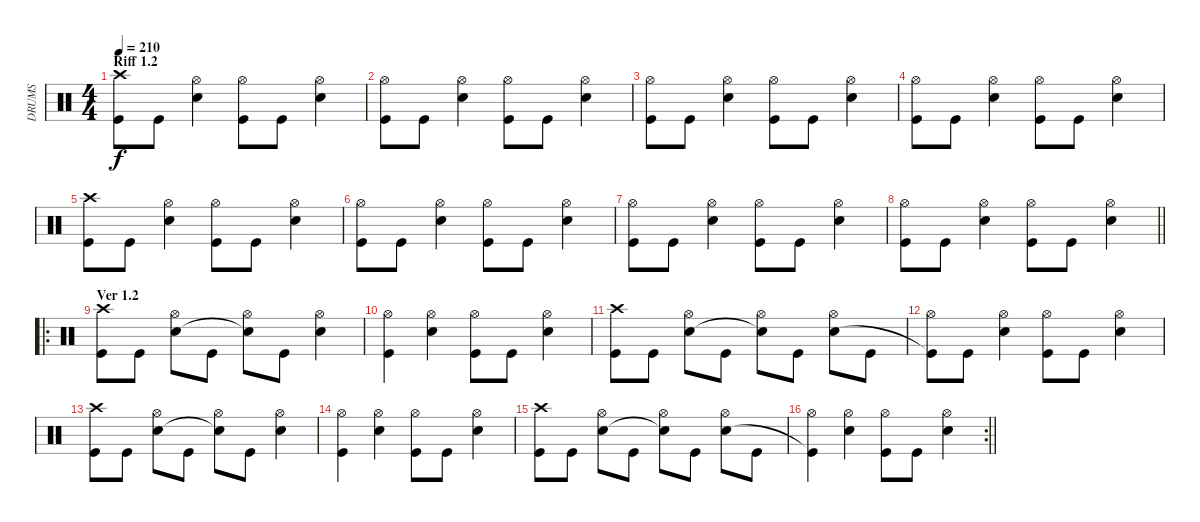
\track ("DRUMS" "DRUMS") {instrument percussion}
\staff {score}
\articulation defaults
\ts (4 4)
\section ("" "Riff 1.2")
\tempo 210
\clef neutral
\ks c
("Crash high (hit)" "Kick (hit)").8{dy f} "Kick (hit)".8 ("Hi-Hat (open)" "Snare (hit) 2").4 ("Hi-Hat (open)" "Kick (hit)").8 "Kick (hit)".8 ("Hi-Hat (open)" "Snare (hit) 2").4 |
("Hi-Hat (open)" "Kick (hit)").8 "Kick (hit)".8 ("Hi-Hat (open)" "Snare (hit) 2").4 ("Hi-Hat (open)" "Kick (hit)").8 "Kick (hit)".8 ("Hi-Hat (open)" "Snare (hit) 2").4 |
("Hi-Hat (open)" "Kick (hit)").8 "Kick (hit)".8 ("Hi-Hat (open)" "Snare (hit) 2").4 ("Hi-Hat (open)" "Kick (hit)").8 "Kick (hit)".8 ("Hi-Hat (open)" "Snare (hit) 2").4 |
("Hi-Hat (open)" "Kick (hit)").8 "Kick (hit)".8 ("Hi-Hat (open)" "Snare (hit) 2").4 ("Hi-Hat (open)" "Kick (hit)").8 "Kick (hit)".8 ("Hi-Hat (open)" "Snare (hit) 2").4 |
("Crash high (hit)" "Kick (hit)").8 "Kick (hit)".8 ("Hi-Hat (open)" "Snare (hit) 2").4 ("Hi-Hat (open)" "Kick (hit)").8 "Kick (hit)".8 ("Hi-Hat (open)" "Snare (hit) 2").4 |
("Hi-Hat (open)" "Kick (hit)").8 "Kick (hit)".8 ("Hi-Hat (open)" "Snare (hit) 2").4 ("Hi-Hat (open)" "Kick (hit)").8 "Kick (hit)".8 ("Hi-Hat (open)" "Snare (hit) 2").4 |
("Hi-Hat (open)" "Kick (hit)").8 "Kick (hit)".8 ("Hi-Hat (open)" "Snare (hit) 2").4 ("Hi-Hat (open)" "Kick (hit)").8 "Kick (hit)".8 ("Hi-Hat (open)" "Snare (hit) 2").4 |
\barLineRight lightlight
("Hi-Hat (open)" "Kick (hit)").8 "Kick (hit)".8 ("Hi-Hat (open)" "Snare (hit) 2").4 ("Hi-Hat (open)" "Kick (hit)").8 "Kick (hit)".8 ("Hi-Hat (open)" "Snare (hit) 2").4 |
\ro
\section ("" "Ver 1.2")
("Crash high (hit)" "Kick (hit)").8 "Kick (hit)".8 ("Hi-Hat (open)" "Snare (hit) 2").8 "Kick (hit)".8 ("Hi-Hat (open)" "Snare (hit)"{t}).8 "Kick (hit)".8 ("Hi-Hat (open)" "Snare (hit) 2").4 |
("Hi-Hat (open)" "Kick (hit)").4 ("Hi-Hat (open)" "Snare (hit) 2").4 ("Hi-Hat (open)" "Kick (hit)").8 "Kick (hit)".8 ("Hi-Hat (open)" "Snare (hit) 2").4 |
("Crash high (hit)" "Kick (hit)").8 "Kick (hit)".8 ("Hi-Hat (open)" "Snare (hit) 2").8 "Kick (hit)".8 ("Hi-Hat (open)" "Snare (hit)"{t}).8 "Kick (hit)".8 ("Hi-Hat (open)" "Snare (hit) 2").8 "Kick (hit)".8 |
("Hi-Hat (open)" "Kick (hit)"{t}).8 "Kick (hit)".8 ("Hi-Hat (open)" "Snare (hit) 2").4 ("Hi-Hat (open)" "Kick (hit)").8 "Kick (hit)".8 ("Hi-Hat (open)" "Snare (hit) 2").4 |
("Crash high (hit)" "Kick (hit)").8 "Kick (hit)".8 ("Hi-Hat (open)" "Snare (hit) 2").8 "Kick (hit)".8 ("Hi-Hat (open)" "Snare (hit)"{t}).8 "Kick (hit)".8 ("Hi-Hat (open)" "Snare (hit) 2").4 |
("Hi-Hat (open)" "Kick (hit)").4 ("Hi-Hat (open)" "Snare (hit) 2").4 ("Hi-Hat (open)" "Kick (hit)").8 "Kick (hit)".8 ("Hi-Hat (open)" "Snare (hit) 2").4 |
("Crash high (hit)" "Kick (hit)").8 "Kick (hit)".8 ("Hi-Hat (open)" "Snare (hit) 2").8 "Kick (hit)".8 ("Hi-Hat (open)" "Snare (hit)"{t}).8 "Kick (hit)".8 ("Hi-Hat (open)" "Snare (hit) 2").8 "Kick (hit)".8 |
\rc 2
\barLineRight lightlight
("Hi-Hat (open)" "Kick (hit)"{t}).4 ("Hi-Hat (open)" "Snare (hit) 2").4 ("Hi-Hat (open)" "Kick (hit)").8 "Kick (hit)".8 ("Hi-Hat (open)" "Snare (hit) 2").4
